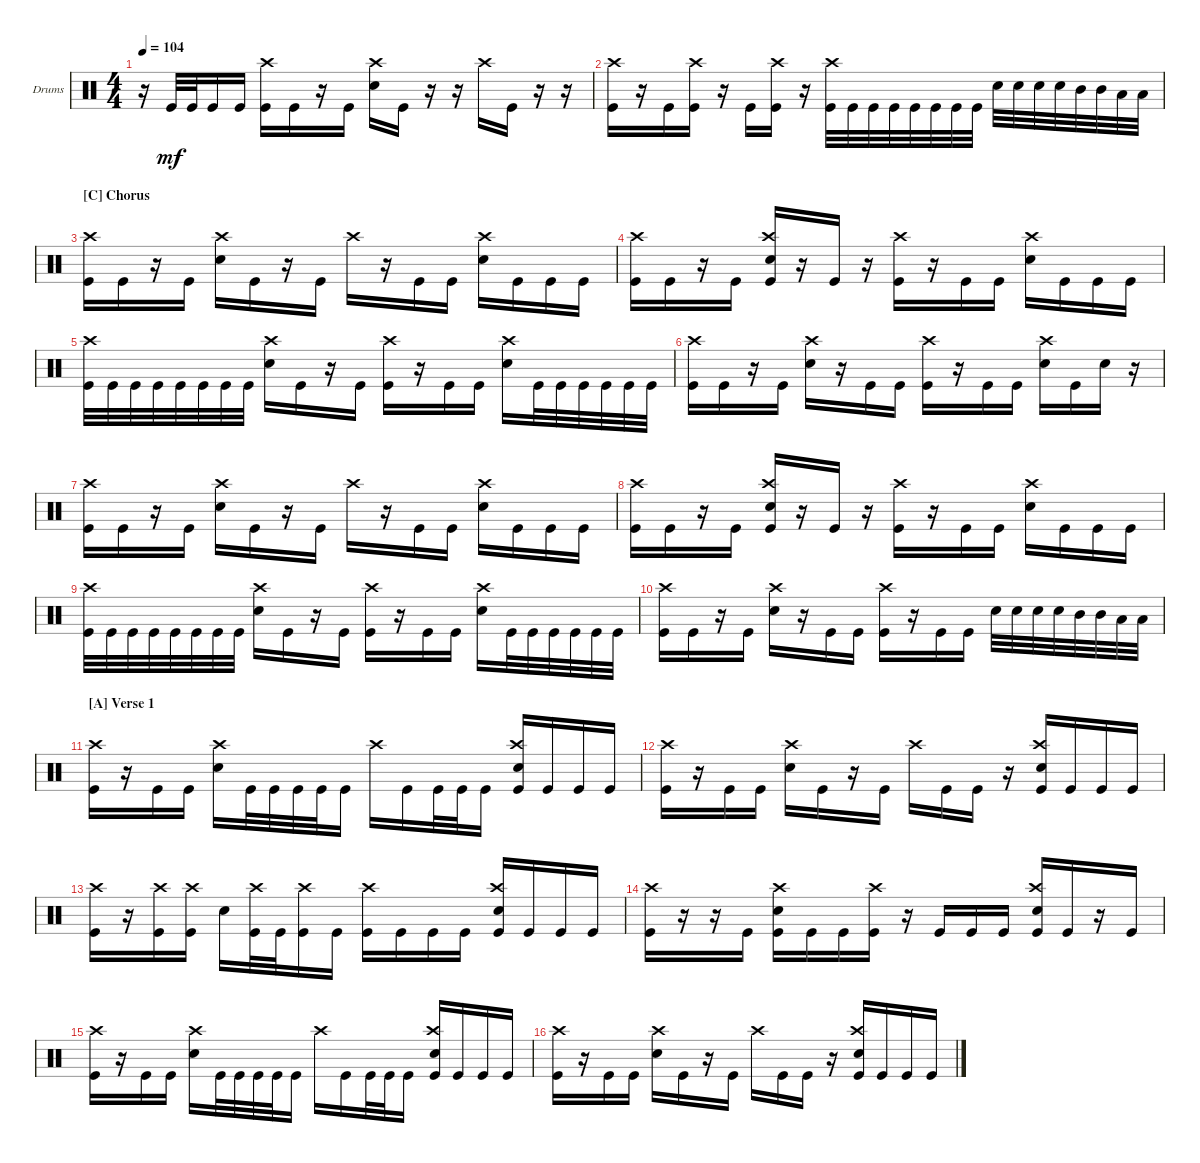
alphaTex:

\bracketExtendMode groupsimilarinstruments
\firstSystemTrackNameOrientation horizontal
\otherSystemsTrackNameOrientation horizontal
\track ("Drumkit" "Drums") {instrument percussion}
\staff {score}
\articulation defaults
\ts (4 4)
\tempo 104
\clef neutral
\ks c
r.16{dy mf} "Kick (hit)".32 "Kick (hit)".32 "Kick (hit)".16 "Kick (hit)".16 ("Kick (hit)" "Crash high (hit)").16 "Kick (hit)".16 r.16 "Kick (hit)".16 ("Snare (hit) 2" "Crash high (hit)").16 "Kick (hit)".16 r.16 r.16 "Crash high (hit)".16 "Kick (hit)".16 r.16 r.16 |
("Kick (hit)" "Crash high (hit)").16 r.16 "Kick (hit)".16 ("Kick (hit)" "Crash high (hit)").16 r.16 "Kick (hit)".16 ("Kick (hit)" "Crash high (hit)").16 r.16 ("Kick (hit)" "Crash high (hit)").32 "Kick (hit)".32 "Kick (hit)".32 "Kick (hit)".32 "Kick (hit)".32 "Kick (hit)".32 "Kick (hit)".32 "Kick (hit)".32 "Snare (hit) 2".32 "Snare (hit) 2".32 "Snare (hit) 2".32 "Snare (hit) 2".32 "Mid Tom (hit)".32 "Mid Tom (hit)".32 "Low Tom (hit)".32 "Low Tom (hit)".32 |
\section ("C" "Chorus")
("Kick (hit)" "Crash high (hit)").16 "Kick (hit)".16 r.16 "Kick (hit)".16 ("Snare (hit) 2" "Crash high (hit)").16 "Kick (hit)".16 r.16 "Kick (hit)".16 "Crash high (hit)".16 r.16 "Kick (hit)".16 "Kick (hit)".16 ("Snare (hit) 2" "Crash high (hit)").16 "Kick (hit)".16 "Kick (hit)".16 "Kick (hit)".16 |
("Kick (hit)" "Crash high (hit)").16 "Kick (hit)".16 r.16 "Kick (hit)".16 ("Snare (hit) 2" "Kick (hit)" "Crash high (hit)").16 r.16 "Kick (hit)".16 r.16 ("Kick (hit)" "Crash high (hit)").16 r.16 "Kick (hit)".16 "Kick (hit)".16 ("Snare (hit) 2" "Crash high (hit)").16 "Kick (hit)".16 "Kick (hit)".16 "Kick (hit)".16 |
("Kick (hit)" "Crash high (hit)").32 "Kick (hit)".32 "Kick (hit)".32 "Kick (hit)".32 "Kick (hit)".32 "Kick (hit)".32 "Kick (hit)".32 "Kick (hit)".32 ("Snare (hit) 2" "Crash high (hit)").16 "Kick (hit)".16 r.16 "Kick (hit)".16 ("Kick (hit)" "Crash high (hit)").16 r.16 "Kick (hit)".16 "Kick (hit)".16 ("Snare (hit) 2" "Crash high (hit)").16 "Kick (hit)".32 "Kick (hit)".32 "Kick (hit)".32 "Kick (hit)".32 "Kick (hit)".32 "Kick (hit)".32 |
("Kick (hit)" "Crash high (hit)").16 "Kick (hit)".16 r.16 "Kick (hit)".16 ("Snare (hit) 2" "Crash high (hit)").16 r.16 "Kick (hit)".16 "Kick (hit)".16 ("Kick (hit)" "Crash high (hit)").16 r.16 "Kick (hit)".16 "Kick (hit)".16 ("Snare (hit) 2" "Crash high (hit)").16 "Kick (hit)".16 "Snare (hit) 2".16 r.16 |
("Kick (hit)" "Crash high (hit)").16 "Kick (hit)".16 r.16 "Kick (hit)".16 ("Snare (hit) 2" "Crash high (hit)").16 "Kick (hit)".16 r.16 "Kick (hit)".16 "Crash high (hit)".16 r.16 "Kick (hit)".16 "Kick (hit)".16 ("Snare (hit) 2" "Crash high (hit)").16 "Kick (hit)".16 "Kick (hit)".16 "Kick (hit)".16 |
("Kick (hit)" "Crash high (hit)").16 "Kick (hit)".16 r.16 "Kick (hit)".16 ("Snare (hit) 2" "Kick (hit)" "Crash high (hit)").16 r.16 "Kick (hit)".16 r.16 ("Kick (hit)" "Crash high (hit)").16 r.16 "Kick (hit)".16 "Kick (hit)".16 ("Snare (hit) 2" "Crash high (hit)").16 "Kick (hit)".16 "Kick (hit)".16 "Kick (hit)".16 |
("Kick (hit)" "Crash high (hit)").32 "Kick (hit)".32 "Kick (hit)".32 "Kick (hit)".32 "Kick (hit)".32 "Kick (hit)".32 "Kick (hit)".32 "Kick (hit)".32 ("Snare (hit) 2" "Crash high (hit)").16 "Kick (hit)".16 r.16 "Kick (hit)".16 ("Kick (hit)" "Crash high (hit)").16 r.16 "Kick (hit)".16 "Kick (hit)".16 ("Snare (hit) 2" "Crash high (hit)").16 "Kick (hit)".32 "Kick (hit)".32 "Kick (hit)".32 "Kick (hit)".32 "Kick (hit)".32 "Kick (hit)".32 |
("Kick (hit)" "Crash high (hit)").16 "Kick (hit)".16 r.16 "Kick (hit)".16 ("Snare (hit) 2" "Crash high (hit)").16 r.16 "Kick (hit)".16 "Kick (hit)".16 ("Kick (hit)" "Crash high (hit)").16 r.16 "Kick (hit)".16 "Kick (hit)".16 "Snare (hit) 2".32 "Snare (hit) 2".32 "Snare (hit) 2".32 "Snare (hit) 2".32 "Mid Tom (hit)".32 "Mid Tom (hit)".32 "Low Tom (hit)".32 "Low Tom (hit)".32 |
\section ("A" "Verse 1")
("Kick (hit)" "Crash high (hit)").16 r.16 "Kick (hit)".16 "Kick (hit)".16 ("Snare (hit) 2" "Crash high (hit)").16 "Kick (hit)".32 "Kick (hit)".32 "Kick (hit)".32 "Kick (hit)".32 "Kick (hit)".16 "Crash high (hit)".16 "Kick (hit)".16 "Kick (hit)".32 "Kick (hit)".32 "Kick (hit)".16 ("Snare (hit) 2" "Kick (hit)" "Crash high (hit)").16 "Kick (hit)".16 "Kick (hit)".16 "Kick (hit)".16 |
("Kick (hit)" "Crash high (hit)").16 r.16 "Kick (hit)".16 "Kick (hit)".16 ("Snare (hit) 2" "Crash high (hit)").16 "Kick (hit)".16 r.16 "Kick (hit)".16 "Crash high (hit)".16 "Kick (hit)".16 "Kick (hit)".16 r.16 ("Snare (hit) 2" "Kick (hit)" "Crash high (hit)").16 "Kick (hit)".16 "Kick (hit)".16 "Kick (hit)".16 |
("Kick (hit)" "Crash high (hit)").16 r.16 ("Kick (hit)" "Crash high (hit)").16 ("Kick (hit)" "Crash high (hit)").16 "Snare (hit) 2".16 ("Kick (hit)" "Crash high (hit)").32 "Kick (hit)".32 ("Kick (hit)" "Crash high (hit)").16 "Kick (hit)".16 ("Kick (hit)" "Crash high (hit)").16 "Kick (hit)".16 "Kick (hit)".16 "Kick (hit)".16 ("Snare (hit) 2" "Kick (hit)" "Crash high (hit)").16 "Kick (hit)".16 "Kick (hit)".16 "Kick (hit)".16 |
("Kick (hit)" "Crash high (hit)").16 r.16 r.16 "Kick (hit)".16 ("Snare (hit) 2" "Kick (hit)" "Crash high (hit)").16 "Kick (hit)".16 "Kick (hit)".16 ("Kick (hit)" "Crash high (hit)").16 r.16 "Kick (hit)".16 "Kick (hit)".16 "Kick (hit)".16 ("Snare (hit) 2" "Kick (hit)" "Crash high (hit)").16 "Kick (hit)".16 r.16 "Kick (hit)".16 |
("Kick (hit)" "Crash high (hit)").16 r.16 "Kick (hit)".16 "Kick (hit)".16 ("Snare (hit) 2" "Crash high (hit)").16 "Kick (hit)".32 "Kick (hit)".32 "Kick (hit)".32 "Kick (hit)".32 "Kick (hit)".16 "Crash high (hit)".16 "Kick (hit)".16 "Kick (hit)".32 "Kick (hit)".32 "Kick (hit)".16 ("Snare (hit) 2" "Kick (hit)" "Crash high (hit)").16 "Kick (hit)".16 "Kick (hit)".16 "Kick (hit)".16 |
("Kick (hit)" "Crash high (hit)").16 r.16 "Kick (hit)".16 "Kick (hit)".16 ("Snare (hit) 2" "Crash high (hit)").16 "Kick (hit)".16 r.16 "Kick (hit)".16 "Crash high (hit)".16 "Kick (hit)".16 "Kick (hit)".16 r.16 ("Snare (hit) 2" "Kick (hit)" "Crash high (hit)").16 "Kick (hit)".16 "Kick (hit)".16 "Kick (hit)".16
